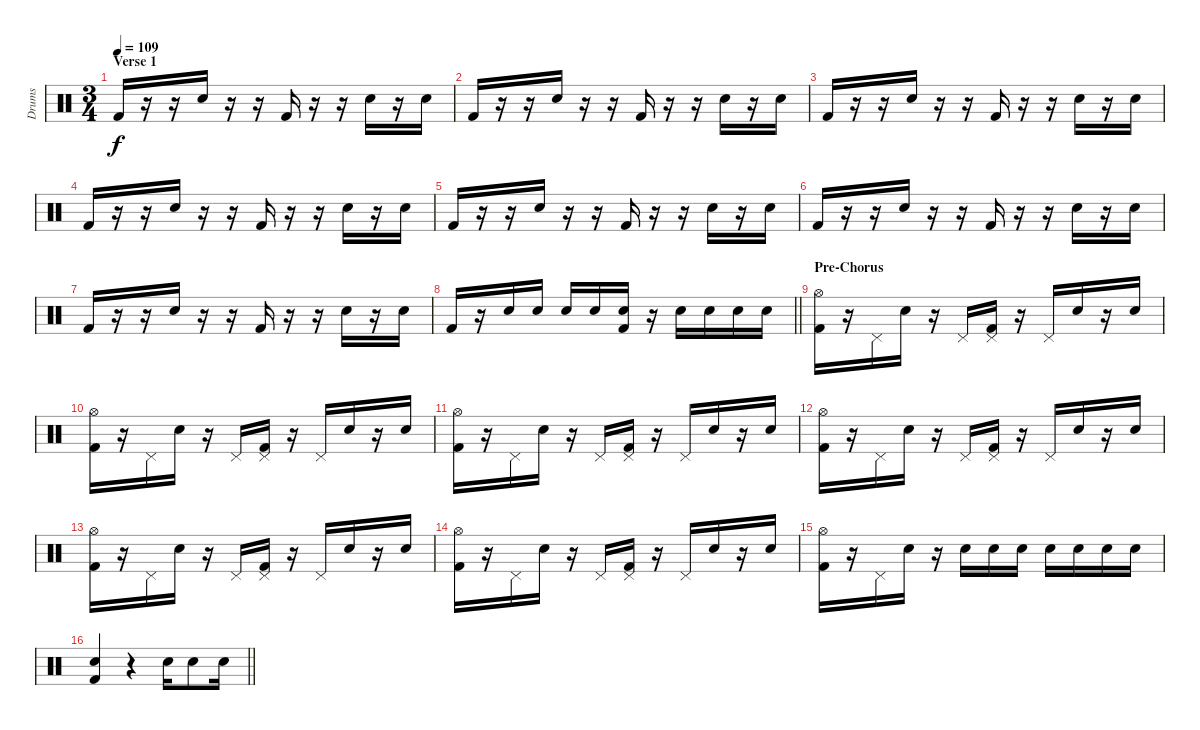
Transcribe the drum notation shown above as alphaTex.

\track ("Drums" "Drums") {instrument percussion}
\staff {score}
\articulation defaults
\ts (3 4)
\section ("" "Verse 1")
\tempo 109
\clef neutral
\ks c "Kick (hit) 2".16{dy f}
r.16 r.16 "Electric Snare (hit)".16 r.16 r.16 "Kick (hit) 2".16 r.16 r.16 "Electric Snare (hit)".16 r.16 "Electric Snare (hit)".16 |
"Kick (hit) 2".16 r.16 r.16 "Electric Snare (hit)".16 r.16 r.16 "Kick (hit) 2".16 r.16 r.16 "Electric Snare (hit)".16 r.16 "Electric Snare (hit)".16 |
"Kick (hit) 2".16 r.16 r.16 "Electric Snare (hit)".16 r.16 r.16 "Kick (hit) 2".16 r.16 r.16 "Electric Snare (hit)".16 r.16 "Electric Snare (hit)".16 |
"Kick (hit) 2".16 r.16 r.16 "Electric Snare (hit)".16 r.16 r.16 "Kick (hit) 2".16 r.16 r.16 "Electric Snare (hit)".16 r.16 "Electric Snare (hit)".16 |
"Kick (hit) 2".16 r.16 r.16 "Electric Snare (hit)".16 r.16 r.16 "Kick (hit) 2".16 r.16 r.16 "Electric Snare (hit)".16 r.16 "Electric Snare (hit)".16 |
"Kick (hit) 2".16 r.16 r.16 "Electric Snare (hit)".16 r.16 r.16 "Kick (hit) 2".16 r.16 r.16 "Electric Snare (hit)".16 r.16 "Electric Snare (hit)".16 |
"Kick (hit) 2".16 r.16 r.16 "Electric Snare (hit)".16 r.16 r.16 "Kick (hit) 2".16 r.16 r.16 "Electric Snare (hit)".16 r.16 "Electric Snare (hit)".16 |
\barLineRight lightlight "Kick (hit) 2".16
r.16 "Electric Snare (hit)".16 "Electric Snare (hit)".16 "Electric Snare (hit)".16 "Electric Snare (hit)".16 ("Electric Snare (hit)" "Kick (hit) 2").16 r.16 "Electric Snare (hit)".16 "Electric Snare (hit)".16 "Electric Snare (hit)".16 "Electric Snare (hit)".16 |
\section ("" "Pre-Chorus")
("Hi-Hat (open)" "Kick (hit) 2").16 r.16 "Pedal Hi-Hat (hit)".16 "Electric Snare (hit)".16 r.16 "Pedal Hi-Hat (hit)".16 ("Pedal Hi-Hat (hit)" "Kick (hit) 2").16 r.16 "Pedal Hi-Hat (hit)".16 "Electric Snare (hit)".16 r.16 "Electric Snare (hit)".16 |
("Hi-Hat (open)" "Kick (hit) 2").16 r.16 "Pedal Hi-Hat (hit)".16 "Electric Snare (hit)".16 r.16 "Pedal Hi-Hat (hit)".16 ("Pedal Hi-Hat (hit)" "Kick (hit) 2").16 r.16 "Pedal Hi-Hat (hit)".16 "Electric Snare (hit)".16 r.16 "Electric Snare (hit)".16 |
("Hi-Hat (open)" "Kick (hit) 2").16 r.16 "Pedal Hi-Hat (hit)".16 "Electric Snare (hit)".16 r.16 "Pedal Hi-Hat (hit)".16 ("Pedal Hi-Hat (hit)" "Kick (hit) 2").16 r.16 "Pedal Hi-Hat (hit)".16 "Electric Snare (hit)".16 r.16 "Electric Snare (hit)".16 |
("Hi-Hat (open)" "Kick (hit) 2").16 r.16 "Pedal Hi-Hat (hit)".16 "Electric Snare (hit)".16 r.16 "Pedal Hi-Hat (hit)".16 ("Pedal Hi-Hat (hit)" "Kick (hit) 2").16 r.16 "Pedal Hi-Hat (hit)".16 "Electric Snare (hit)".16 r.16 "Electric Snare (hit)".16 |
("Hi-Hat (open)" "Kick (hit) 2").16 r.16 "Pedal Hi-Hat (hit)".16 "Electric Snare (hit)".16 r.16 "Pedal Hi-Hat (hit)".16 ("Pedal Hi-Hat (hit)" "Kick (hit) 2").16 r.16 "Pedal Hi-Hat (hit)".16 "Electric Snare (hit)".16 r.16 "Electric Snare (hit)".16 |
("Hi-Hat (open)" "Kick (hit) 2").16 r.16 "Pedal Hi-Hat (hit)".16 "Electric Snare (hit)".16 r.16 "Pedal Hi-Hat (hit)".16 ("Pedal Hi-Hat (hit)" "Kick (hit) 2").16 r.16 "Pedal Hi-Hat (hit)".16 "Electric Snare (hit)".16 r.16 "Electric Snare (hit)".16 |
("Hi-Hat (open)" "Kick (hit) 2").16 r.16 "Pedal Hi-Hat (hit)".16 "Electric Snare (hit)".16 r.16 "Electric Snare (hit)".16 "Electric Snare (hit)".16 "Electric Snare (hit)".16 "Electric Snare (hit)".16 "Electric Snare (hit)".16 "Electric Snare (hit)".16 "Electric Snare (hit)".16 |
\barLineRight lightlight
("Electric Snare (hit)" "Kick (hit) 2").4 r.4 "Electric Snare (hit)".16 "Electric Snare (hit)".8 "Electric Snare (hit)".16
